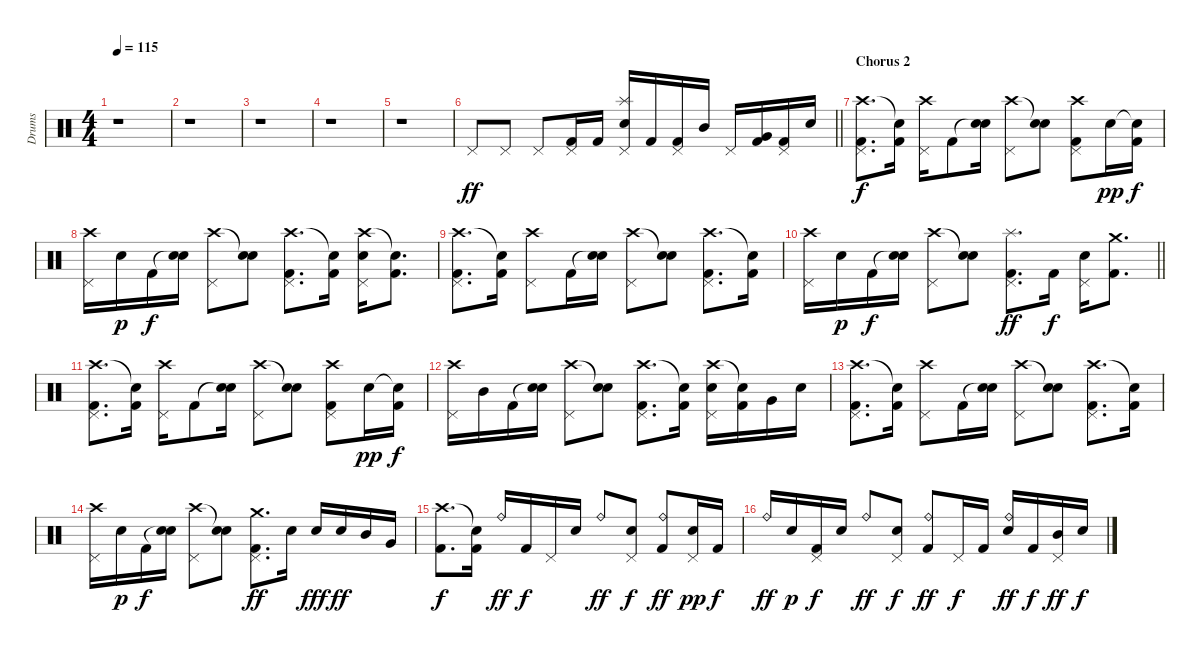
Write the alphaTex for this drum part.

\track ("Drums" "Drums") {instrument percussion}
\staff {score}
\articulation defaults
\ts (4 4)
\tempo 115
\clef neutral
\ks c
r.1{dy ff} |
r.1 |
r.1 |
r.1 |
r.1 |
\barLineRight lightlight "Pedal Hi-Hat (hit)".8 "Pedal Hi-Hat (hit)".8 "Pedal Hi-Hat (hit)".8
("Pedal Hi-Hat (hit)" "Kick (hit) 2").16 "Kick (hit) 2".16 ("Splash (hit)" "Pedal Hi-Hat (hit)" "Snare (hit) 2").16 "Kick (hit) 2".16 ("Pedal Hi-Hat (hit)" "Kick (hit) 2").16 "Mid Tom (hit)".16 "Pedal Hi-Hat (hit)".16 ("Very Low Tom (hit)" "Kick (hit) 2").16 ("Pedal Hi-Hat (hit)" "Kick (hit) 2").16 "Snare (hit) 2".16 |
\section ("" "Chorus 2")
("Crash high (hit)" "Pedal Hi-Hat (hit)" "Kick (hit) 2").8{d dy f} ("Snare (hit)"{t} "Kick (hit) 2").16 ("Crash high (hit)" "Pedal Hi-Hat (hit)").16 "Kick (hit) 2".8 ("Snare (hit)"{t} "Snare (hit) 2").16 ("Crash high (hit)" "Pedal Hi-Hat (hit)").8 ("Snare (hit)"{t} "Snare (hit) 2").8 ("Crash high (hit)" "Pedal Hi-Hat (hit)" "Kick (hit) 2").8 "Snare (hit) 2".16{dy pp} ("Snare (hit)"{t} "Kick (hit) 2").16{dy f} |
("Crash high (hit)" "Pedal Hi-Hat (hit)").16 "Snare (hit) 2".16{dy p} "Kick (hit) 2".16{dy f} ("Snare (hit)"{t} "Snare (hit) 2").16 ("Crash high (hit)" "Pedal Hi-Hat (hit)").8 ("Snare (hit)"{t} "Snare (hit) 2").8 ("Crash high (hit)" "Pedal Hi-Hat (hit)" "Kick (hit) 2").8{d} ("Snare (hit)"{t} "Kick (hit) 2").16 ("Crash high (hit)" "Pedal Hi-Hat (hit)" "Snare (hit) 2").16 ("Snare (hit)"{t} "Kick (hit) 2").8{d} |
("Crash high (hit)" "Pedal Hi-Hat (hit)" "Kick (hit) 2").8{d} ("Snare (hit)"{t} "Kick (hit) 2").16 ("Crash high (hit)" "Pedal Hi-Hat (hit)").8 "Kick (hit) 2".16 ("Snare (hit)"{t} "Snare (hit) 2").16 ("Crash high (hit)" "Pedal Hi-Hat (hit)").8 ("Snare (hit)"{t} "Snare (hit) 2").8 ("Crash high (hit)" "Pedal Hi-Hat (hit)" "Kick (hit) 2").8{d} ("Snare (hit)"{t} "Kick (hit) 2").16 |
\barLineRight lightlight
("Crash high (hit)" "Pedal Hi-Hat (hit)").16 "Snare (hit) 2".16{dy p} "Kick (hit) 2".16{dy f} ("Snare (hit)"{t} "Snare (hit) 2").16 ("Crash high (hit)" "Pedal Hi-Hat (hit)").8 ("Snare (hit)"{t} "Snare (hit) 2").8 ("Splash (hit)" "Pedal Hi-Hat (hit)" "Kick (hit) 2").8{d dy ff} "Kick (hit) 2".16{dy f} ("Pedal Hi-Hat (hit)" "Snare (hit) 2").16 ("Crash medium (hit)" "Kick (hit) 2").8{d} |
("Crash high (hit)" "Pedal Hi-Hat (hit)" "Kick (hit) 2").8{d} ("Snare (hit)"{t} "Kick (hit) 2").16 ("Crash high (hit)" "Pedal Hi-Hat (hit)").16 "Kick (hit) 2".8 ("Snare (hit)"{t} "Snare (hit) 2").16 ("Crash high (hit)" "Pedal Hi-Hat (hit)").8 ("Snare (hit)"{t} "Snare (hit) 2").8 ("Crash high (hit)" "Pedal Hi-Hat (hit)" "Kick (hit) 2").8 "Snare (hit) 2".16{dy pp} ("Snare (hit)"{t} "Kick (hit) 2").16{dy f} |
("Crash high (hit)" "Pedal Hi-Hat (hit)").16 "Mid Tom (hit)".16 "Kick (hit) 2".16 ("Snare (hit)"{t} "Snare (hit) 2").16 ("Crash high (hit)" "Pedal Hi-Hat (hit)").8 ("Snare (hit)"{t} "Snare (hit) 2").8 ("Crash high (hit)" "Pedal Hi-Hat (hit)" "Kick (hit) 2").8{d} ("Snare (hit)"{t} "Kick (hit) 2").16 ("Crash high (hit)" "Pedal Hi-Hat (hit)" "Snare (hit) 2").16 ("Snare (hit)"{t} "Kick (hit) 2").16 "Very Low Tom (hit)".16 "Snare (hit) 2".16 |
("Crash high (hit)" "Pedal Hi-Hat (hit)" "Kick (hit) 2").8{d} ("Snare (hit)"{t} "Kick (hit) 2").16 ("Crash high (hit)" "Pedal Hi-Hat (hit)").8 "Kick (hit) 2".16 ("Snare (hit)"{t} "Snare (hit) 2").16 ("Crash high (hit)" "Pedal Hi-Hat (hit)").8 ("Snare (hit)"{t} "Snare (hit) 2").8 ("Crash high (hit)" "Pedal Hi-Hat (hit)" "Kick (hit) 2").8{d} ("Snare (hit)"{t} "Kick (hit) 2").16 |
("Crash high (hit)" "Pedal Hi-Hat (hit)").16 "Snare (hit) 2".16{dy p} "Kick (hit) 2".16{dy f} ("Snare (hit)"{t} "Snare (hit) 2").16 ("Crash high (hit)" "Pedal Hi-Hat (hit)").8 ("Snare (hit)"{t} "Snare (hit) 2").8 ("Crash medium (hit)" "Pedal Hi-Hat (hit)" "Kick (hit) 2").8{d dy ff} "Snare (hit) 2".16 "Snare (hit) 2".16{dy fff} "Snare (hit) 2".16{dy ff} "Mid Tom (hit)".16 "Very Low Tom (hit)".16 |
("Crash high (hit)" "Kick (hit) 2").8{d dy f} ("Snare (hit)"{t} "Kick (hit) 2").16 "Ride (bell)".16{dy ff} "Kick (hit) 2".16{dy f} "Pedal Hi-Hat (hit)".16 "Snare (hit) 2".16 "Ride (bell)".8{dy ff} ("Pedal Hi-Hat (hit)" "Snare (hit) 2").8{dy f} ("Ride (bell)" "Kick (hit) 2").8{dy ff} ("Pedal Hi-Hat (hit)" "Snare (hit) 2").16{dy pp} "Kick (hit) 2".16{dy f} |
"Ride (bell)".16{dy ff} "Snare (hit) 2".16{dy p} ("Pedal Hi-Hat (hit)" "Kick (hit) 2").16{dy f} "Snare (hit) 2".16 "Ride (bell)".8{dy ff} ("Pedal Hi-Hat (hit)" "Snare (hit) 2").8{dy f} ("Ride (bell)" "Kick (hit) 2").8{dy ff} "Pedal Hi-Hat (hit)".16{dy f} "Kick (hit) 2".16 ("Ride (bell)" "Snare (hit) 2").16{dy ff} "Kick (hit) 2".16{dy f} ("Pedal Hi-Hat (hit)" "Mid Tom (hit)").16{dy ff} "Snare (hit) 2".16{dy f}
